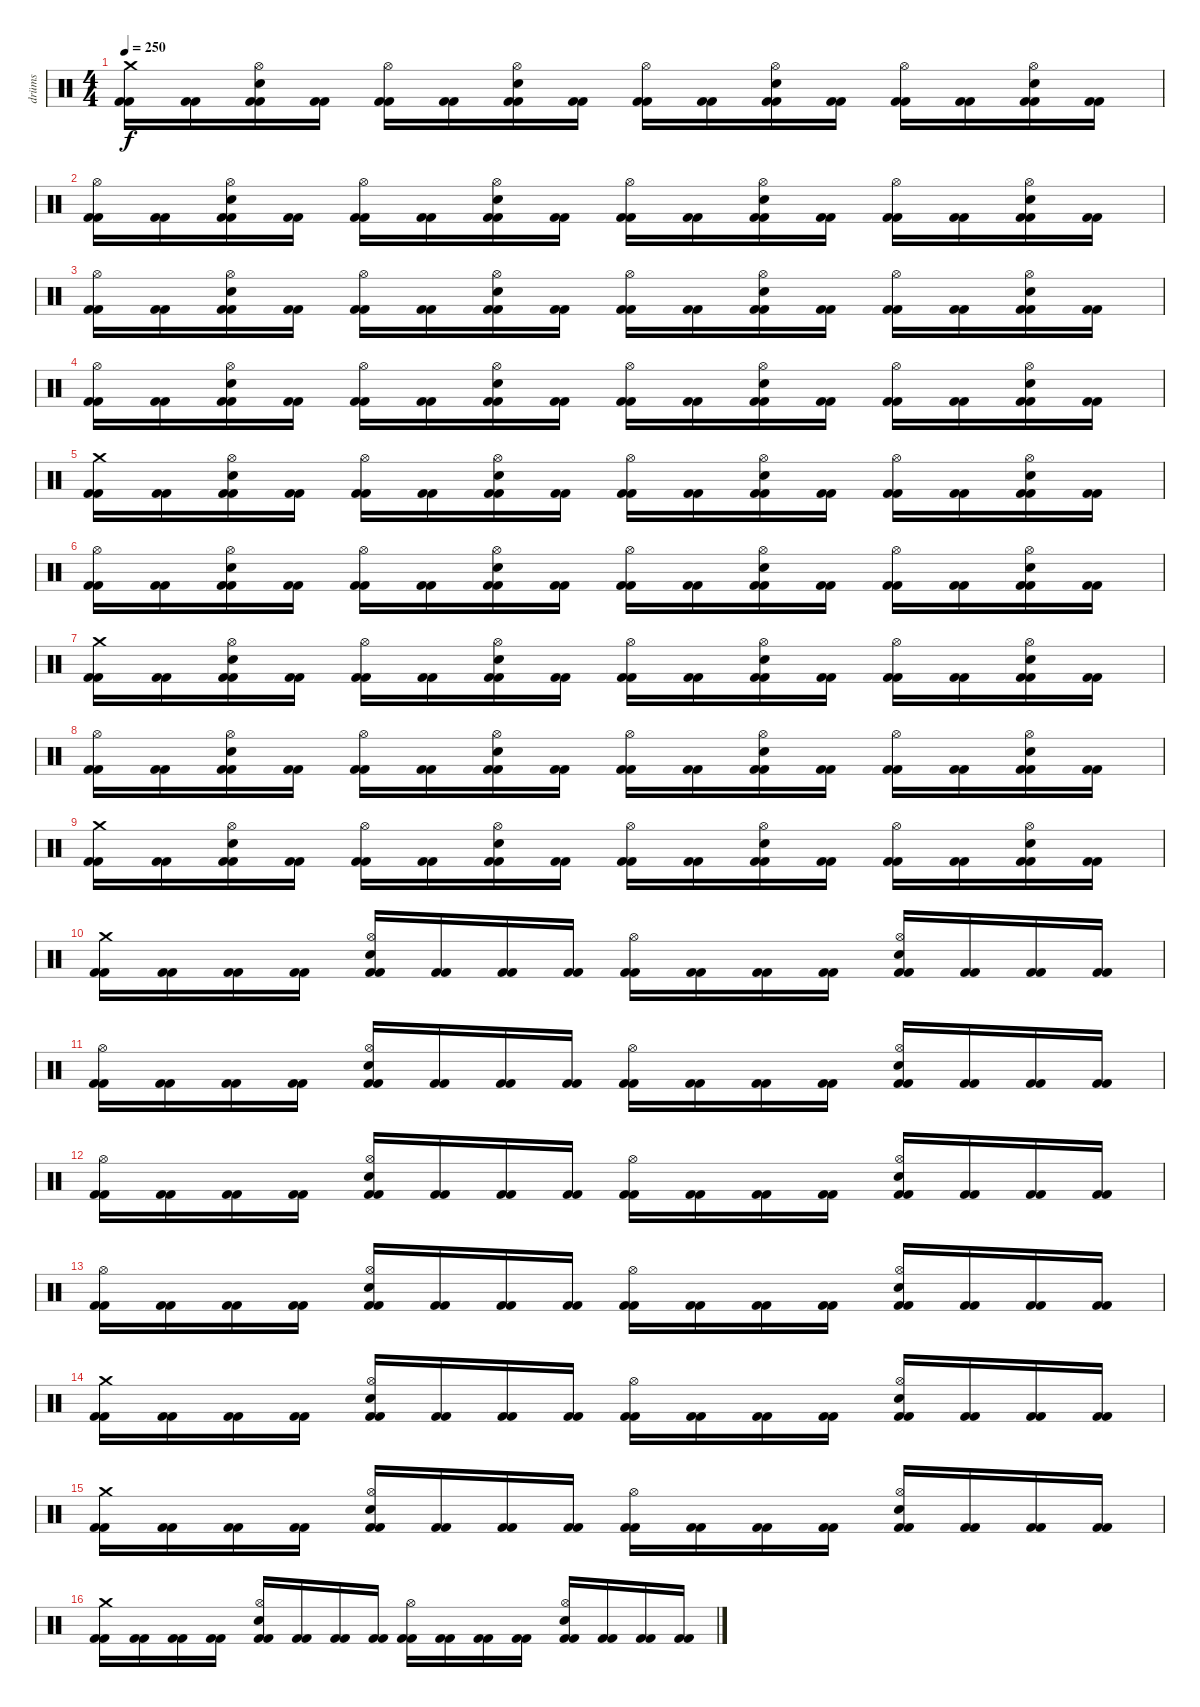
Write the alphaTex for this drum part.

\track ("drüms" "drüms") {instrument percussion}
\staff {score}
\articulation defaults
\ts (4 4)
\tempo 250
\clef neutral
\ks c
("Crash medium (hit)" "Kick (hit) 2" "Kick (hit) 2").16{dy f} ("Kick (hit) 2" "Kick (hit) 2").16 ("Hi-Hat (open)" "Snare (hit) 2" "Kick (hit) 2" "Kick (hit) 2").16 ("Kick (hit) 2" "Kick (hit) 2").16 ("Hi-Hat (open)" "Kick (hit) 2" "Kick (hit) 2").16 ("Kick (hit) 2" "Kick (hit) 2").16 ("Hi-Hat (open)" "Snare (hit) 2" "Kick (hit) 2" "Kick (hit) 2").16 ("Kick (hit) 2" "Kick (hit) 2").16 ("Hi-Hat (open)" "Kick (hit) 2" "Kick (hit) 2").16 ("Kick (hit) 2" "Kick (hit) 2").16 ("Hi-Hat (open)" "Snare (hit) 2" "Kick (hit) 2" "Kick (hit) 2").16 ("Kick (hit) 2" "Kick (hit) 2").16 ("Hi-Hat (open)" "Kick (hit) 2" "Kick (hit) 2").16 ("Kick (hit) 2" "Kick (hit) 2").16 ("Hi-Hat (open)" "Snare (hit) 2" "Kick (hit) 2" "Kick (hit) 2").16 ("Kick (hit) 2" "Kick (hit) 2").16 |
("Hi-Hat (open)" "Kick (hit) 2" "Kick (hit) 2").16 ("Kick (hit) 2" "Kick (hit) 2").16 ("Hi-Hat (open)" "Snare (hit) 2" "Kick (hit) 2" "Kick (hit) 2").16 ("Kick (hit) 2" "Kick (hit) 2").16 ("Hi-Hat (open)" "Kick (hit) 2" "Kick (hit) 2").16 ("Kick (hit) 2" "Kick (hit) 2").16 ("Hi-Hat (open)" "Snare (hit) 2" "Kick (hit) 2" "Kick (hit) 2").16 ("Kick (hit) 2" "Kick (hit) 2").16 ("Hi-Hat (open)" "Kick (hit) 2" "Kick (hit) 2").16 ("Kick (hit) 2" "Kick (hit) 2").16 ("Hi-Hat (open)" "Snare (hit) 2" "Kick (hit) 2" "Kick (hit) 2").16 ("Kick (hit) 2" "Kick (hit) 2").16 ("Hi-Hat (open)" "Kick (hit) 2" "Kick (hit) 2").16 ("Kick (hit) 2" "Kick (hit) 2").16 ("Hi-Hat (open)" "Snare (hit) 2" "Kick (hit) 2" "Kick (hit) 2").16 ("Kick (hit) 2" "Kick (hit) 2").16 |
("Hi-Hat (open)" "Kick (hit) 2" "Kick (hit) 2").16 ("Kick (hit) 2" "Kick (hit) 2").16 ("Hi-Hat (open)" "Snare (hit) 2" "Kick (hit) 2" "Kick (hit) 2").16 ("Kick (hit) 2" "Kick (hit) 2").16 ("Hi-Hat (open)" "Kick (hit) 2" "Kick (hit) 2").16 ("Kick (hit) 2" "Kick (hit) 2").16 ("Hi-Hat (open)" "Snare (hit) 2" "Kick (hit) 2" "Kick (hit) 2").16 ("Kick (hit) 2" "Kick (hit) 2").16 ("Hi-Hat (open)" "Kick (hit) 2" "Kick (hit) 2").16 ("Kick (hit) 2" "Kick (hit) 2").16 ("Hi-Hat (open)" "Snare (hit) 2" "Kick (hit) 2" "Kick (hit) 2").16 ("Kick (hit) 2" "Kick (hit) 2").16 ("Hi-Hat (open)" "Kick (hit) 2" "Kick (hit) 2").16 ("Kick (hit) 2" "Kick (hit) 2").16 ("Hi-Hat (open)" "Snare (hit) 2" "Kick (hit) 2" "Kick (hit) 2").16 ("Kick (hit) 2" "Kick (hit) 2").16 |
("Hi-Hat (open)" "Kick (hit) 2" "Kick (hit) 2").16 ("Kick (hit) 2" "Kick (hit) 2").16 ("Hi-Hat (open)" "Snare (hit) 2" "Kick (hit) 2" "Kick (hit) 2").16 ("Kick (hit) 2" "Kick (hit) 2").16 ("Hi-Hat (open)" "Kick (hit) 2" "Kick (hit) 2").16 ("Kick (hit) 2" "Kick (hit) 2").16 ("Hi-Hat (open)" "Snare (hit) 2" "Kick (hit) 2" "Kick (hit) 2").16 ("Kick (hit) 2" "Kick (hit) 2").16 ("Hi-Hat (open)" "Kick (hit) 2" "Kick (hit) 2").16 ("Kick (hit) 2" "Kick (hit) 2").16 ("Hi-Hat (open)" "Snare (hit) 2" "Kick (hit) 2" "Kick (hit) 2").16 ("Kick (hit) 2" "Kick (hit) 2").16 ("Hi-Hat (open)" "Kick (hit) 2" "Kick (hit) 2").16 ("Kick (hit) 2" "Kick (hit) 2").16 ("Hi-Hat (open)" "Snare (hit) 2" "Kick (hit) 2" "Kick (hit) 2").16 ("Kick (hit) 2" "Kick (hit) 2").16 |
("Crash medium (hit)" "Kick (hit) 2" "Kick (hit) 2").16 ("Kick (hit) 2" "Kick (hit) 2").16 ("Hi-Hat (open)" "Snare (hit) 2" "Kick (hit) 2" "Kick (hit) 2").16 ("Kick (hit) 2" "Kick (hit) 2").16 ("Hi-Hat (open)" "Kick (hit) 2" "Kick (hit) 2").16 ("Kick (hit) 2" "Kick (hit) 2").16 ("Hi-Hat (open)" "Snare (hit) 2" "Kick (hit) 2" "Kick (hit) 2").16 ("Kick (hit) 2" "Kick (hit) 2").16 ("Hi-Hat (open)" "Kick (hit) 2" "Kick (hit) 2").16 ("Kick (hit) 2" "Kick (hit) 2").16 ("Hi-Hat (open)" "Snare (hit) 2" "Kick (hit) 2" "Kick (hit) 2").16 ("Kick (hit) 2" "Kick (hit) 2").16 ("Hi-Hat (open)" "Kick (hit) 2" "Kick (hit) 2").16 ("Kick (hit) 2" "Kick (hit) 2").16 ("Hi-Hat (open)" "Snare (hit) 2" "Kick (hit) 2" "Kick (hit) 2").16 ("Kick (hit) 2" "Kick (hit) 2").16 |
("Hi-Hat (open)" "Kick (hit) 2" "Kick (hit) 2").16 ("Kick (hit) 2" "Kick (hit) 2").16 ("Hi-Hat (open)" "Snare (hit) 2" "Kick (hit) 2" "Kick (hit) 2").16 ("Kick (hit) 2" "Kick (hit) 2").16 ("Hi-Hat (open)" "Kick (hit) 2" "Kick (hit) 2").16 ("Kick (hit) 2" "Kick (hit) 2").16 ("Hi-Hat (open)" "Snare (hit) 2" "Kick (hit) 2" "Kick (hit) 2").16 ("Kick (hit) 2" "Kick (hit) 2").16 ("Hi-Hat (open)" "Kick (hit) 2" "Kick (hit) 2").16 ("Kick (hit) 2" "Kick (hit) 2").16 ("Hi-Hat (open)" "Snare (hit) 2" "Kick (hit) 2" "Kick (hit) 2").16 ("Kick (hit) 2" "Kick (hit) 2").16 ("Hi-Hat (open)" "Kick (hit) 2" "Kick (hit) 2").16 ("Kick (hit) 2" "Kick (hit) 2").16 ("Hi-Hat (open)" "Snare (hit) 2" "Kick (hit) 2" "Kick (hit) 2").16 ("Kick (hit) 2" "Kick (hit) 2").16 |
("Crash medium (hit)" "Kick (hit) 2" "Kick (hit) 2").16 ("Kick (hit) 2" "Kick (hit) 2").16 ("Hi-Hat (open)" "Snare (hit) 2" "Kick (hit) 2" "Kick (hit) 2").16 ("Kick (hit) 2" "Kick (hit) 2").16 ("Hi-Hat (open)" "Kick (hit) 2" "Kick (hit) 2").16 ("Kick (hit) 2" "Kick (hit) 2").16 ("Hi-Hat (open)" "Snare (hit) 2" "Kick (hit) 2" "Kick (hit) 2").16 ("Kick (hit) 2" "Kick (hit) 2").16 ("Hi-Hat (open)" "Kick (hit) 2" "Kick (hit) 2").16 ("Kick (hit) 2" "Kick (hit) 2").16 ("Hi-Hat (open)" "Snare (hit) 2" "Kick (hit) 2" "Kick (hit) 2").16 ("Kick (hit) 2" "Kick (hit) 2").16 ("Hi-Hat (open)" "Kick (hit) 2" "Kick (hit) 2").16 ("Kick (hit) 2" "Kick (hit) 2").16 ("Hi-Hat (open)" "Snare (hit) 2" "Kick (hit) 2" "Kick (hit) 2").16 ("Kick (hit) 2" "Kick (hit) 2").16 |
("Hi-Hat (open)" "Kick (hit) 2" "Kick (hit) 2").16 ("Kick (hit) 2" "Kick (hit) 2").16 ("Hi-Hat (open)" "Snare (hit) 2" "Kick (hit) 2" "Kick (hit) 2").16 ("Kick (hit) 2" "Kick (hit) 2").16 ("Hi-Hat (open)" "Kick (hit) 2" "Kick (hit) 2").16 ("Kick (hit) 2" "Kick (hit) 2").16 ("Hi-Hat (open)" "Snare (hit) 2" "Kick (hit) 2" "Kick (hit) 2").16 ("Kick (hit) 2" "Kick (hit) 2").16 ("Hi-Hat (open)" "Kick (hit) 2" "Kick (hit) 2").16 ("Kick (hit) 2" "Kick (hit) 2").16 ("Hi-Hat (open)" "Snare (hit) 2" "Kick (hit) 2" "Kick (hit) 2").16 ("Kick (hit) 2" "Kick (hit) 2").16 ("Hi-Hat (open)" "Kick (hit) 2" "Kick (hit) 2").16 ("Kick (hit) 2" "Kick (hit) 2").16 ("Hi-Hat (open)" "Snare (hit) 2" "Kick (hit) 2" "Kick (hit) 2").16 ("Kick (hit) 2" "Kick (hit) 2").16 |
("Crash medium (hit)" "Kick (hit) 2" "Kick (hit) 2").16 ("Kick (hit) 2" "Kick (hit) 2").16 ("Hi-Hat (open)" "Snare (hit) 2" "Kick (hit) 2" "Kick (hit) 2").16 ("Kick (hit) 2" "Kick (hit) 2").16 ("Hi-Hat (open)" "Kick (hit) 2" "Kick (hit) 2").16 ("Kick (hit) 2" "Kick (hit) 2").16 ("Hi-Hat (open)" "Snare (hit) 2" "Kick (hit) 2" "Kick (hit) 2").16 ("Kick (hit) 2" "Kick (hit) 2").16 ("Hi-Hat (open)" "Kick (hit) 2" "Kick (hit) 2").16 ("Kick (hit) 2" "Kick (hit) 2").16 ("Hi-Hat (open)" "Snare (hit) 2" "Kick (hit) 2" "Kick (hit) 2").16 ("Kick (hit) 2" "Kick (hit) 2").16 ("Hi-Hat (open)" "Kick (hit) 2" "Kick (hit) 2").16 ("Kick (hit) 2" "Kick (hit) 2").16 ("Hi-Hat (open)" "Snare (hit) 2" "Kick (hit) 2" "Kick (hit) 2").16 ("Kick (hit) 2" "Kick (hit) 2").16 |
("Crash medium (hit)" "Kick (hit) 2" "Kick (hit) 2").16 ("Kick (hit) 2" "Kick (hit) 2").16 ("Kick (hit) 2" "Kick (hit) 2").16 ("Kick (hit) 2" "Kick (hit) 2").16 ("Hi-Hat (open)" "Snare (hit) 2" "Kick (hit) 2" "Kick (hit) 2").16 ("Kick (hit) 2" "Kick (hit) 2").16 ("Kick (hit) 2" "Kick (hit) 2").16 ("Kick (hit) 2" "Kick (hit) 2").16 ("Hi-Hat (open)" "Kick (hit) 2" "Kick (hit) 2").16 ("Kick (hit) 2" "Kick (hit) 2").16 ("Kick (hit) 2" "Kick (hit) 2").16 ("Kick (hit) 2" "Kick (hit) 2").16 ("Hi-Hat (open)" "Snare (hit) 2" "Kick (hit) 2" "Kick (hit) 2").16 ("Kick (hit) 2" "Kick (hit) 2").16 ("Kick (hit) 2" "Kick (hit) 2").16 ("Kick (hit) 2" "Kick (hit) 2").16 |
("Hi-Hat (open)" "Kick (hit) 2" "Kick (hit) 2").16 ("Kick (hit) 2" "Kick (hit) 2").16 ("Kick (hit) 2" "Kick (hit) 2").16 ("Kick (hit) 2" "Kick (hit) 2").16 ("Hi-Hat (open)" "Snare (hit) 2" "Kick (hit) 2" "Kick (hit) 2").16 ("Kick (hit) 2" "Kick (hit) 2").16 ("Kick (hit) 2" "Kick (hit) 2").16 ("Kick (hit) 2" "Kick (hit) 2").16 ("Hi-Hat (open)" "Kick (hit) 2" "Kick (hit) 2").16 ("Kick (hit) 2" "Kick (hit) 2").16 ("Kick (hit) 2" "Kick (hit) 2").16 ("Kick (hit) 2" "Kick (hit) 2").16 ("Hi-Hat (open)" "Snare (hit) 2" "Kick (hit) 2" "Kick (hit) 2").16 ("Kick (hit) 2" "Kick (hit) 2").16 ("Kick (hit) 2" "Kick (hit) 2").16 ("Kick (hit) 2" "Kick (hit) 2").16 |
("Hi-Hat (open)" "Kick (hit) 2" "Kick (hit) 2").16 ("Kick (hit) 2" "Kick (hit) 2").16 ("Kick (hit) 2" "Kick (hit) 2").16 ("Kick (hit) 2" "Kick (hit) 2").16 ("Hi-Hat (open)" "Snare (hit) 2" "Kick (hit) 2" "Kick (hit) 2").16 ("Kick (hit) 2" "Kick (hit) 2").16 ("Kick (hit) 2" "Kick (hit) 2").16 ("Kick (hit) 2" "Kick (hit) 2").16 ("Hi-Hat (open)" "Kick (hit) 2" "Kick (hit) 2").16 ("Kick (hit) 2" "Kick (hit) 2").16 ("Kick (hit) 2" "Kick (hit) 2").16 ("Kick (hit) 2" "Kick (hit) 2").16 ("Hi-Hat (open)" "Snare (hit) 2" "Kick (hit) 2" "Kick (hit) 2").16 ("Kick (hit) 2" "Kick (hit) 2").16 ("Kick (hit) 2" "Kick (hit) 2").16 ("Kick (hit) 2" "Kick (hit) 2").16 |
("Hi-Hat (open)" "Kick (hit) 2" "Kick (hit) 2").16 ("Kick (hit) 2" "Kick (hit) 2").16 ("Kick (hit) 2" "Kick (hit) 2").16 ("Kick (hit) 2" "Kick (hit) 2").16 ("Hi-Hat (open)" "Snare (hit) 2" "Kick (hit) 2" "Kick (hit) 2").16 ("Kick (hit) 2" "Kick (hit) 2").16 ("Kick (hit) 2" "Kick (hit) 2").16 ("Kick (hit) 2" "Kick (hit) 2").16 ("Hi-Hat (open)" "Kick (hit) 2" "Kick (hit) 2").16 ("Kick (hit) 2" "Kick (hit) 2").16 ("Kick (hit) 2" "Kick (hit) 2").16 ("Kick (hit) 2" "Kick (hit) 2").16 ("Hi-Hat (open)" "Snare (hit) 2" "Kick (hit) 2" "Kick (hit) 2").16 ("Kick (hit) 2" "Kick (hit) 2").16 ("Kick (hit) 2" "Kick (hit) 2").16 ("Kick (hit) 2" "Kick (hit) 2").16 |
("Crash medium (hit)" "Kick (hit) 2" "Kick (hit) 2").16 ("Kick (hit) 2" "Kick (hit) 2").16 ("Kick (hit) 2" "Kick (hit) 2").16 ("Kick (hit) 2" "Kick (hit) 2").16 ("Hi-Hat (open)" "Snare (hit) 2" "Kick (hit) 2" "Kick (hit) 2").16 ("Kick (hit) 2" "Kick (hit) 2").16 ("Kick (hit) 2" "Kick (hit) 2").16 ("Kick (hit) 2" "Kick (hit) 2").16 ("Hi-Hat (open)" "Kick (hit) 2" "Kick (hit) 2").16 ("Kick (hit) 2" "Kick (hit) 2").16 ("Kick (hit) 2" "Kick (hit) 2").16 ("Kick (hit) 2" "Kick (hit) 2").16 ("Hi-Hat (open)" "Snare (hit) 2" "Kick (hit) 2" "Kick (hit) 2").16 ("Kick (hit) 2" "Kick (hit) 2").16 ("Kick (hit) 2" "Kick (hit) 2").16 ("Kick (hit) 2" "Kick (hit) 2").16 |
("Crash medium (hit)" "Kick (hit) 2" "Kick (hit) 2").16 ("Kick (hit) 2" "Kick (hit) 2").16 ("Kick (hit) 2" "Kick (hit) 2").16 ("Kick (hit) 2" "Kick (hit) 2").16 ("Hi-Hat (open)" "Snare (hit) 2" "Kick (hit) 2" "Kick (hit) 2").16 ("Kick (hit) 2" "Kick (hit) 2").16 ("Kick (hit) 2" "Kick (hit) 2").16 ("Kick (hit) 2" "Kick (hit) 2").16 ("Hi-Hat (open)" "Kick (hit) 2" "Kick (hit) 2").16 ("Kick (hit) 2" "Kick (hit) 2").16 ("Kick (hit) 2" "Kick (hit) 2").16 ("Kick (hit) 2" "Kick (hit) 2").16 ("Hi-Hat (open)" "Snare (hit) 2" "Kick (hit) 2" "Kick (hit) 2").16 ("Kick (hit) 2" "Kick (hit) 2").16 ("Kick (hit) 2" "Kick (hit) 2").16 ("Kick (hit) 2" "Kick (hit) 2").16 |
("Crash medium (hit)" "Kick (hit) 2" "Kick (hit) 2").16 ("Kick (hit) 2" "Kick (hit) 2").16 ("Kick (hit) 2" "Kick (hit) 2").16 ("Kick (hit) 2" "Kick (hit) 2").16 ("Hi-Hat (open)" "Snare (hit) 2" "Kick (hit) 2" "Kick (hit) 2").16 ("Kick (hit) 2" "Kick (hit) 2").16 ("Kick (hit) 2" "Kick (hit) 2").16 ("Kick (hit) 2" "Kick (hit) 2").16 ("Hi-Hat (open)" "Kick (hit) 2" "Kick (hit) 2").16 ("Kick (hit) 2" "Kick (hit) 2").16 ("Kick (hit) 2" "Kick (hit) 2").16 ("Kick (hit) 2" "Kick (hit) 2").16 ("Hi-Hat (open)" "Snare (hit) 2" "Kick (hit) 2" "Kick (hit) 2").16 ("Kick (hit) 2" "Kick (hit) 2").16 ("Kick (hit) 2" "Kick (hit) 2").16 ("Kick (hit) 2" "Kick (hit) 2").16
